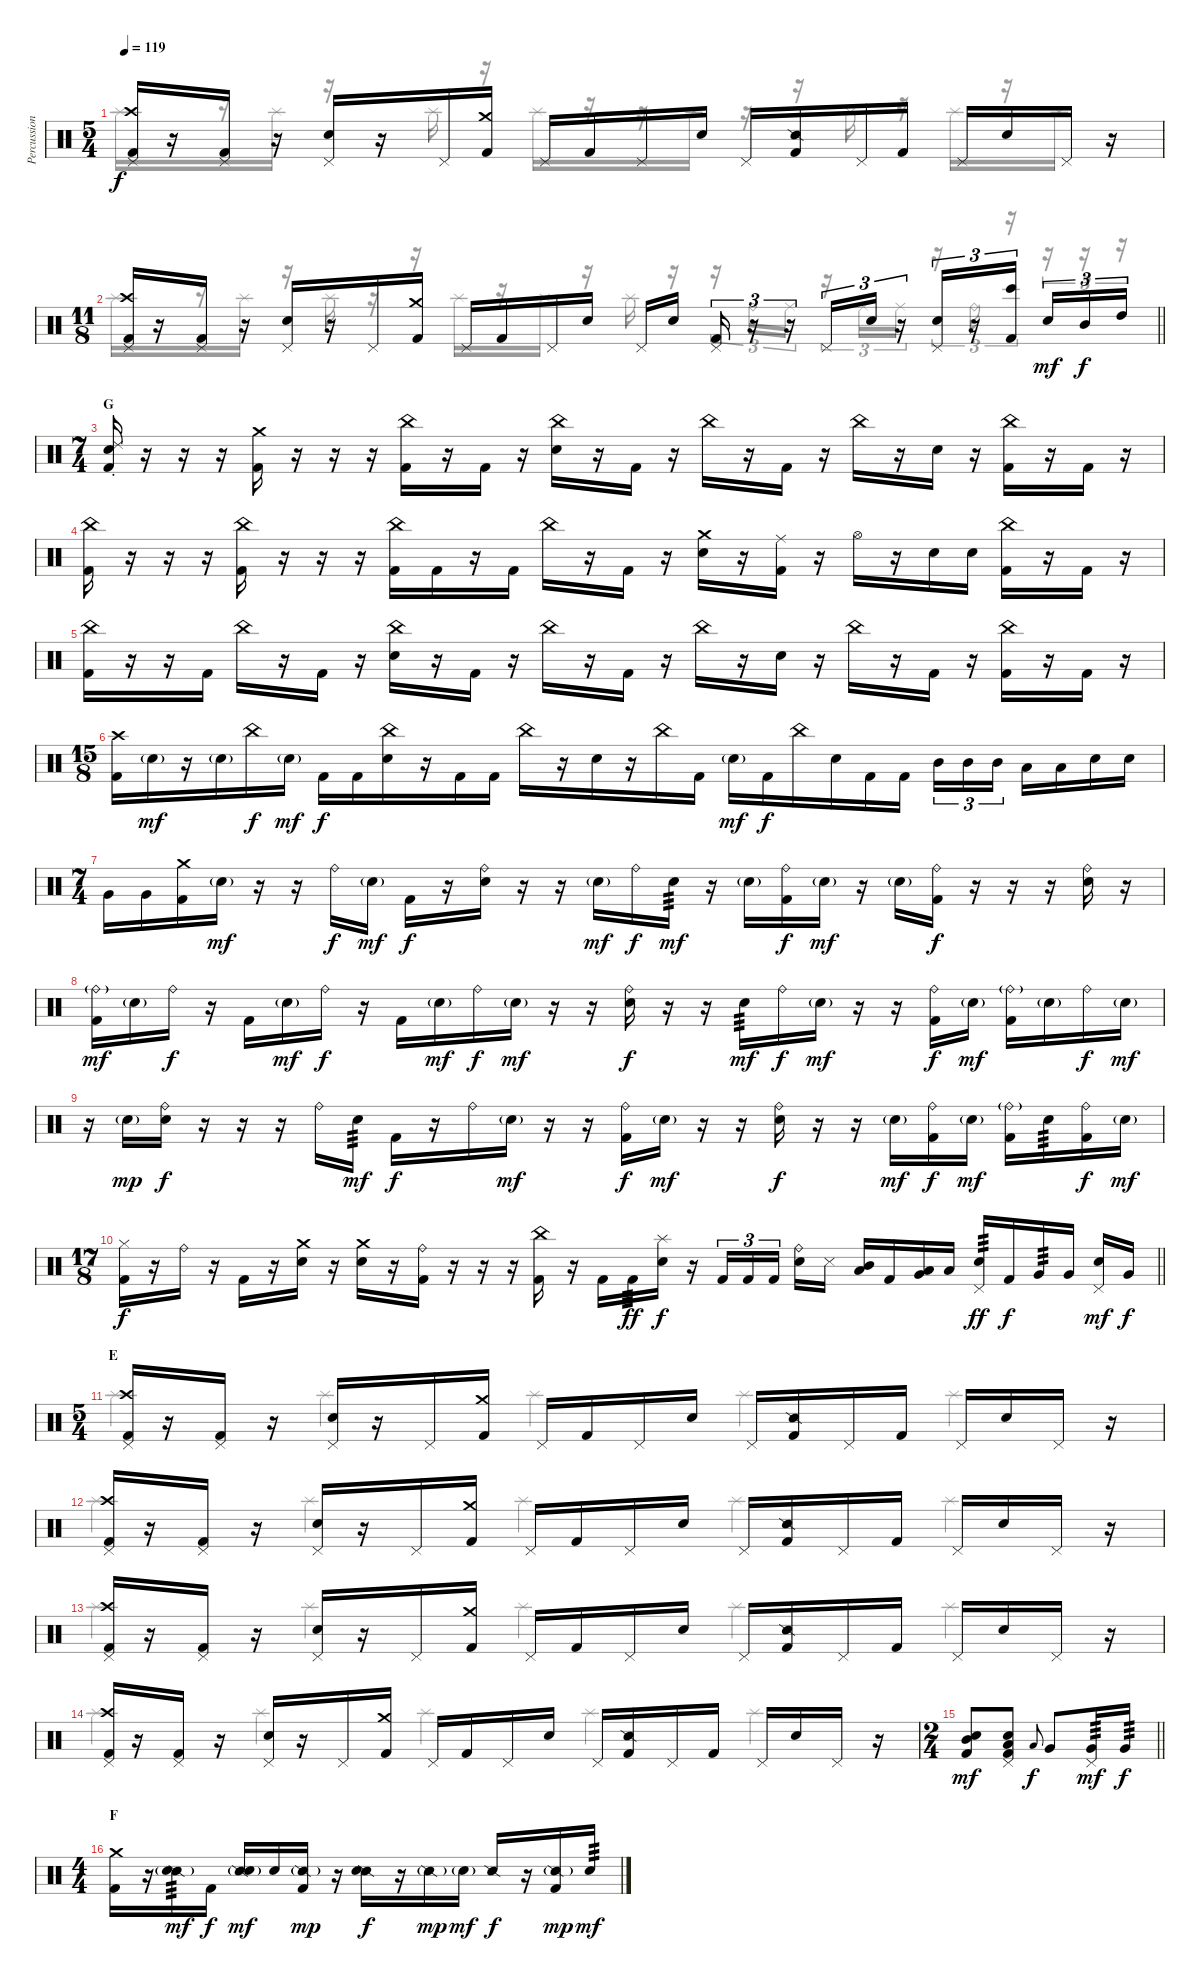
\track ("Percussion" "Percussion") {instrument percussion}
\staff {score}
\articulation defaults
\voice
\ts (5 4)
\tempo 119
\clef neutral
\ks c
("Crash high (hit)" "Pedal Hi-Hat (hit)" "Kick (hit) 2").16{dy f} r.16 ("Pedal Hi-Hat (hit)" "Kick (hit) 2").16 r.16 ("Pedal Hi-Hat (hit)" "Snare (hit) 2").16 r.16 "Pedal Hi-Hat (hit)".16 ("Crash medium (hit)" "Kick (hit) 2").16 "Pedal Hi-Hat (hit)".16 "Kick (hit) 2".16 "Pedal Hi-Hat (hit)".16 "Snare (hit) 2".16 "Pedal Hi-Hat (hit)".16 ("Snare (side stick) 2" "Kick (hit) 2").16 "Pedal Hi-Hat (hit)".16 "Kick (hit) 2".16 "Pedal Hi-Hat (hit)".16 "Snare (hit) 2".16 "Pedal Hi-Hat (hit)".16 r.16 |
\ts (11 8)
\barLineRight lightlight
("Crash high (hit)" "Pedal Hi-Hat (hit)" "Kick (hit) 2").16 r.16 ("Pedal Hi-Hat (hit)" "Kick (hit) 2").16 r.16 ("Pedal Hi-Hat (hit)" "Snare (hit) 2").16 r.16 "Pedal Hi-Hat (hit)".16 ("Crash medium (hit)" "Kick (hit) 2").16 "Pedal Hi-Hat (hit)".16 "Kick (hit) 2".16 "Pedal Hi-Hat (hit)".16 "Snare (hit) 2".16 "Pedal Hi-Hat (hit)".16 "Snare (hit)".16 ("Pedal Hi-Hat (hit)" "Kick (hit) 2").16{tu (3 2)} r.16{tu (3 2)} r.16{tu (3 2)} "Pedal Hi-Hat (hit)".16{tu (3 2)} "Snare (hit) 2".16{tu (3 2)} r.16{tu (3 2)} ("Pedal Hi-Hat (hit)" "Snare (hit) 2").16{tu (3 2)} r.16{tu (3 2)} ("Bongo High (hit)" "Kick (hit) 2").16{tu (3 2)} "Snare (hit) 2".16{tu (3 2) dy mf} "Mid Tom (hit)".16{tu (3 2) dy f} "High Tom (hit)".16{tu (3 2)} |
\ts (7 4)
\section ("" "G")
("Snare (hit)" "Ride (choke) 2" "Kick (hit) 2").16 r.16 r.16 r.16 ("Crash medium (hit)" "Kick (hit) 2").16 r.16 r.16 r.16 ("China (hit)" "Kick (hit) 2").16 r.16 "Kick (hit) 2".16 r.16 ("China (hit)" "Snare (hit) 2").16 r.16 "Kick (hit) 2".16 r.16 "China (hit)".16 r.16 "Kick (hit) 2".16 r.16 "China (hit)".16 r.16 "Snare (hit) 2".16 r.16 ("China (hit)" "Kick (hit) 2").16 r.16 "Kick (hit) 2".16 r.16 |
("China (hit)" "Kick (hit) 2").16 r.16 r.16 r.16 ("China (hit)" "Kick (hit) 2").16 r.16 r.16 r.16 ("China (hit)" "Kick (hit) 2").16 "Kick (hit) 2".16 r.16 "Kick (hit) 2".16 "China (hit)".16 r.16 "Kick (hit) 2".16 r.16 ("Crash medium (hit)" "Snare (hit) 2").16 r.16 ("Ride (middle)" "Kick (hit) 2").16 r.16 "Hi-Hat (open)".16 r.16 "Snare (hit) 2".16 "Snare (hit) 2".16 ("China (hit)" "Kick (hit) 2").16 r.16 "Kick (hit) 2".16 r.16 |
("China (hit)" "Kick (hit) 2").16 r.16 r.16 "Kick (hit) 2".16 "China (hit)".16 r.16 "Kick (hit) 2".16 r.16 ("China (hit)" "Snare (hit) 2").16 r.16 "Kick (hit) 2".16 r.16 "China (hit)".16 r.16 "Kick (hit) 2".16 r.16 "China (hit)".16 r.16 "Snare (hit) 2".16 r.16 "China (hit)".16 r.16 "Kick (hit) 2".16 r.16 ("China (hit)" "Kick (hit) 2").16 r.16 "Kick (hit) 2".16 r.16 |
\ts (15 8)
("Crash high (hit)" "Kick (hit) 2").16 "Snare (hit) 2"{g}.16{dy mf} r.16 "Snare (hit) 2"{g}.16 "China (hit)".16{dy f} "Snare (hit) 2"{g}.16{dy mf} "Kick (hit) 2".16{dy f} "Kick (hit) 2".16 ("China (hit)" "Snare (hit) 2").16 r.16 "Kick (hit) 2".16 "Kick (hit) 2".16 "China (hit)".16 r.16 "Snare (hit) 2".16 r.16 "China (hit)".16 "Kick (hit) 2".16 "Snare (hit) 2"{g}.16{dy mf} "Kick (hit) 2".16{dy f} "China (hit)".16 "Snare (hit) 2".16 "Kick (hit) 2".16 "Kick (hit) 2".16 "Mid Tom (hit)".16{tu (3 2)} "Mid Tom (hit)".16{tu (3 2)} "Mid Tom (hit)".16{tu (3 2) beam splitsecondary} "Low Tom (hit)".16 "Low Tom (hit)".16 "Snare (hit) 2".16 "Snare (hit) 2".16 |
\ts (7 4)
"Very Low Tom (hit)".16 "Very Low Tom (hit)".16 ("Crash medium (hit)" "Kick (hit) 2").16 "Snare (hit) 2"{g}.16{dy mf} r.16 r.16 "Ride (bell)".16{dy f} "Snare (hit) 2"{g}.16{dy mf} "Kick (hit) 2".16{dy f} r.16 ("Ride (bell)" "Snare (hit) 2").16 r.16 r.16 "Snare (hit) 2"{g}.16{dy mf} "Ride (bell)".16{dy f} "Snare (hit) 2".16{tp 3 dy mf} r.16 "Snare (hit) 2"{g}.16 ("Ride (bell)" "Kick (hit) 2").16{dy f} "Snare (hit) 2"{g}.16{dy mf} r.16 "Snare (hit) 2"{g}.16 ("Ride (bell)" "Kick (hit) 2").16{dy f} r.16 r.16 r.16 ("Ride (bell)" "Snare (hit) 2").16 r.16 |
("Ride (bell)"{g} "Kick (hit) 2").16{dy mf} "Snare (hit) 2"{g}.16 "Ride (bell)".16{dy f} r.16 "Kick (hit) 2".16 "Snare (hit) 2"{g}.16{dy mf} "Ride (bell)".16{dy f} r.16 "Kick (hit) 2".16 "Snare (hit) 2"{g}.16{dy mf} "Ride (bell)".16{dy f} "Snare (hit) 2"{g}.16{dy mf} r.16 r.16 ("Ride (bell)" "Snare (hit) 2").16{dy f} r.16 r.16 "Snare (hit) 2".16{tp 3 dy mf} "Ride (bell)".16{dy f} "Snare (hit) 2"{g}.16{dy mf} r.16 r.16 ("Ride (bell)" "Kick (hit) 2").16{dy f} "Snare (hit) 2"{g}.16{dy mf} ("Ride (bell)"{g} "Kick (hit) 2").16 "Snare (hit) 2"{g}.16 "Ride (bell)".16{dy f} "Snare (hit) 2"{g}.16{dy mf} |
r.16 "Snare (hit) 2"{g}.16{dy mp} ("Ride (bell)" "Snare (hit) 2").16{dy f} r.16 r.16 r.16 "Ride (bell)".16 "Snare (hit) 2".16{tp 3 dy mf} "Kick (hit) 2".16{dy f} r.16 "Ride (bell)".16 "Snare (hit) 2"{g}.16{dy mf} r.16 r.16 ("Ride (bell)" "Kick (hit) 2").16{dy f} "Snare (hit) 2"{g}.16{dy mf} r.16 r.16 ("Ride (bell)" "Snare (hit) 2").16{dy f} r.16 r.16 "Snare (hit) 2"{g}.16{dy mf} ("Ride (bell)" "Kick (hit) 2").16{dy f} "Snare (hit) 2"{g}.16{dy mf} ("Ride (bell)"{g} "Kick (hit) 2").16 "Snare (hit) 2".16{tp 3} ("Ride (bell)" "Kick (hit) 2").16{dy f} "Snare (hit) 2"{g}.16{dy mf} |
\ts (17 8)
\barLineRight lightlight
("Hi-Hat (closed)" "Kick (hit) 2").16{dy f} r.16 "Ride (bell)".16 r.16 "Kick (hit) 2".16 r.16 ("Crash medium (hit)" "Snare (hit) 2").16 r.16 ("Crash medium (hit)" "Snare (hit) 2").16 r.16 ("Ride (bell)" "Kick (hit) 2").16 r.16 r.16 r.16 ("China (hit)" "Kick (hit) 2").16 r.16 "Kick (hit) 2".16 "Kick (hit) 2".16{tp 3 dy ff} ("Splash (hit)" "Snare (hit) 2").16{dy f} r.16 "Kick (hit) 2".16{tu (3 2)} "Kick (hit) 2".16{tu (3 2)} "Kick (hit) 2".16{tu (3 2)} ("Ride (bell)" "Snare (hit) 2").16 "Metronome (hit)".16 ("Mid Tom (hit)" "Low Tom (hit)").16{bu 60} "Kick (hit) 2".16 ("Low Tom (hit)" "Very Low Tom (hit)").16{bu 60} "Low Tom (hit)".16 ("Pedal Hi-Hat (hit)" "Snare (hit) 2").16{tp 3 dy ff} "Kick (hit) 2".16{dy f} "Very Low Tom (hit)".16{tp 3} "Very Low Tom (hit)".16 ("Pedal Hi-Hat (hit)" "Snare (hit) 2").16{dy mf} "Very Low Tom (hit)".16{dy f} |
\ts (5 4)
\section ("" "E")
("Crash high (hit)" "Pedal Hi-Hat (hit)" "Kick (hit) 2").16 r.16 ("Pedal Hi-Hat (hit)" "Kick (hit) 2").16 r.16 ("Pedal Hi-Hat (hit)" "Snare (hit) 2").16 r.16 "Pedal Hi-Hat (hit)".16 ("Crash medium (hit)" "Kick (hit) 2").16 "Pedal Hi-Hat (hit)".16 "Kick (hit) 2".16 "Pedal Hi-Hat (hit)".16 "Snare (hit) 2".16 "Pedal Hi-Hat (hit)".16 ("Snare (side stick) 2" "Kick (hit) 2").16 "Pedal Hi-Hat (hit)".16 "Kick (hit) 2".16 "Pedal Hi-Hat (hit)".16 "Snare (hit) 2".16 "Pedal Hi-Hat (hit)".16 r.16 |
("Crash high (hit)" "Pedal Hi-Hat (hit)" "Kick (hit) 2").16 r.16 ("Pedal Hi-Hat (hit)" "Kick (hit) 2").16 r.16 ("Pedal Hi-Hat (hit)" "Snare (hit) 2").16 r.16 "Pedal Hi-Hat (hit)".16 ("Crash medium (hit)" "Kick (hit) 2").16 "Pedal Hi-Hat (hit)".16 "Kick (hit) 2".16 "Pedal Hi-Hat (hit)".16 "Snare (hit) 2".16 "Pedal Hi-Hat (hit)".16 ("Snare (side stick) 2" "Kick (hit) 2").16 "Pedal Hi-Hat (hit)".16 "Kick (hit) 2".16 "Pedal Hi-Hat (hit)".16 "Snare (hit) 2".16 "Pedal Hi-Hat (hit)".16 r.16 |
("Crash high (hit)" "Pedal Hi-Hat (hit)" "Kick (hit) 2").16 r.16 ("Pedal Hi-Hat (hit)" "Kick (hit) 2").16 r.16 ("Pedal Hi-Hat (hit)" "Snare (hit) 2").16 r.16 "Pedal Hi-Hat (hit)".16 ("Crash medium (hit)" "Kick (hit) 2").16 "Pedal Hi-Hat (hit)".16 "Kick (hit) 2".16 "Pedal Hi-Hat (hit)".16 "Snare (hit) 2".16 "Pedal Hi-Hat (hit)".16 ("Snare (side stick) 2" "Kick (hit) 2").16 "Pedal Hi-Hat (hit)".16 "Kick (hit) 2".16 "Pedal Hi-Hat (hit)".16 "Snare (hit) 2".16 "Pedal Hi-Hat (hit)".16 r.16 |
("Crash high (hit)" "Pedal Hi-Hat (hit)" "Kick (hit) 2").16 r.16 ("Pedal Hi-Hat (hit)" "Kick (hit) 2").16 r.16 ("Pedal Hi-Hat (hit)" "Snare (hit) 2").16 r.16 "Pedal Hi-Hat (hit)".16 ("Crash medium (hit)" "Kick (hit) 2").16 "Pedal Hi-Hat (hit)".16 "Kick (hit) 2".16 "Pedal Hi-Hat (hit)".16 "Snare (hit) 2".16 "Pedal Hi-Hat (hit)".16 ("Snare (side stick) 2" "Kick (hit) 2").16 "Pedal Hi-Hat (hit)".16 "Kick (hit) 2".16 "Pedal Hi-Hat (hit)".16 "Snare (hit) 2".16 "Pedal Hi-Hat (hit)".16 r.16 |
\ts (2 4)
\barLineRight lightlight
("Mid Tom (hit)" "Snare (hit) 2" "Kick (hit) 2").8{dy mf} ("Pedal Hi-Hat (hit)" "Snare (hit) 2" "Low Floor Tom (hit)" "Kick (hit) 2").8 "Low Tom (hit)".8{gr onbeat dy f} "Very Low Tom (hit)".8 ("Pedal Hi-Hat (hit)" "Very Low Tom (hit)").16{tp 3 dy mf} "Very Low Tom (hit)".16{tp 3 dy f} |
\ts (4 4)
\section ("" "F")
("Crash medium (hit)" "Kick (hit) 2").16 r.16 ("Snare (side stick) 2"{g} "Snare (hit) 2").16{tp 3 dy mf} "Kick (hit) 2".16{dy f} ("Snare (side stick) 2" "Snare (hit) 2"{g}).16{dy mf} "Snare (hit) 2".16 ("Snare (side stick) 2"{g} "Kick (hit) 2").16{dy mp} r.16 ("Snare (side stick) 2" "Snare (hit) 2").16{dy f} r.16 "Snare (side stick) 2"{g}.16{dy mp} "Snare (hit) 2"{g}.16{dy mf} "Snare (side stick) 2".16{dy f} r.16 ("Snare (side stick) 2"{g} "Kick (hit) 2").16{dy mp} "Snare (hit) 2".16{tp 3 dy mf}
\voice
\clef neutral
\ottava regular
\simile none
\ks c "Splash (hit)".16{dy f}
r.16 r.16 "Splash (hit)".16 r.16 r.16 "Splash (hit)".16 r.16 "Splash (hit)".16 r.16 r.16 "Splash (hit)".16 r.16 r.16 "Splash (hit)".16 r.16 "Splash (hit)".16 r.16 "Splash (hit)".16 r.16 |
\barLineRight lightlight "Splash (hit)".16
r.16 r.16 "Splash (hit)".16 r.16 "Splash (hit)".16 r.16 r.16 "Splash (hit)".16 r.16 "Splash (hit)".16 r.16 "Splash (hit)".16 r.16 r.16{tu (3 2)} "Ride (bell)".16{tu (3 2)} "Ride (middle)".16{tu (3 2)} r.16{tu (3 2)} "Ride (middle)".16{tu (3 2)} "Ride (middle)".16{tu (3 2)} r.16{tu (3 2)} "Ride (bell)".16{tu (3 2)} r.16{tu (3 2)} r.16{tu (3 2)} r.16{tu (3 2)} r.16{tu (3 2)} |
|
|
|
|
|
|
|
\barLineRight lightlight
|
"Splash (hit)".4 "Splash (hit)".4 "Splash (hit)".4 "Splash (hit)".4 "Splash (hit)".4 |
"Splash (hit)".4 "Splash (hit)".4 "Splash (hit)".4 "Splash (hit)".4 "Splash (hit)".4 |
"Splash (hit)".4 "Splash (hit)".4 "Splash (hit)".4 "Splash (hit)".4 "Splash (hit)".4 |
"Splash (hit)".4 "Splash (hit)".4 "Splash (hit)".4 "Splash (hit)".4 "Splash (hit)".4 |
\barLineRight lightlight
|
